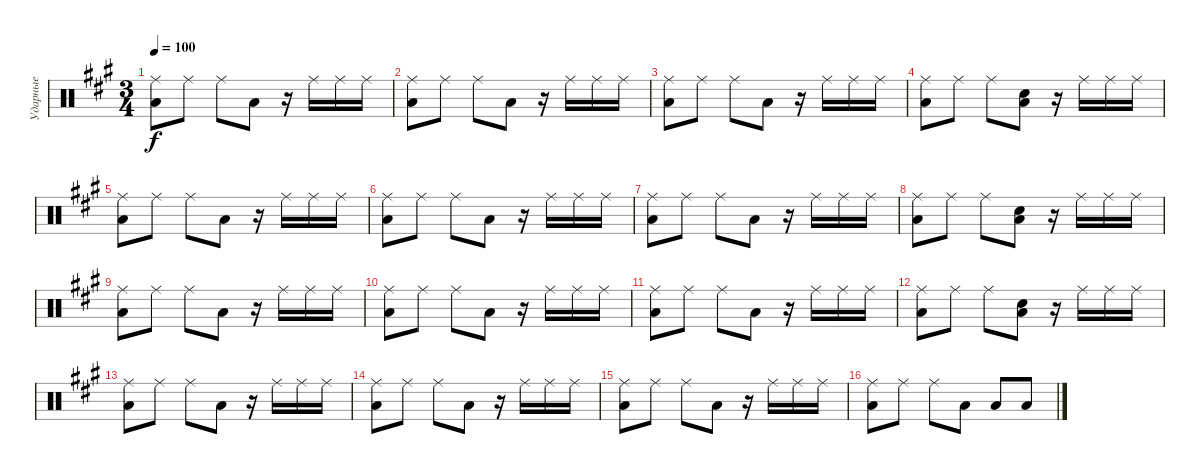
\track ("Ударные" "Ударные") {instrument percussion}
\staff {score}
\articulation defaults
\ts (3 4)
\tempo 100
\clef neutral
\ks f#minor
("Low Tom (hit)" "Ride (middle)").8{dy f} "Ride (middle)".8 "Ride (middle)".8 "Low Tom (hit)".8 r.16 "Ride (middle)".16 "Ride (middle)".16 "Ride (middle)".16 |
("Low Tom (hit)" "Ride (middle)").8 "Ride (middle)".8 "Ride (middle)".8 "Low Tom (hit)".8 r.16 "Ride (middle)".16 "Ride (middle)".16 "Ride (middle)".16 |
("Low Tom (hit)" "Ride (middle)").8 "Ride (middle)".8 "Ride (middle)".8 "Low Tom (hit)".8 r.16 "Ride (middle)".16 "Ride (middle)".16 "Ride (middle)".16 |
("Low Tom (hit)" "Ride (middle)").8 "Ride (middle)".8 "Ride (middle)".8 ("Low Tom (hit)" "Snare (hit) 2").8 r.16 "Ride (middle)".16 "Ride (middle)".16 "Ride (middle)".16 |
("Low Tom (hit)" "Ride (middle)").8 "Ride (middle)".8 "Ride (middle)".8 "Low Tom (hit)".8 r.16 "Ride (middle)".16 "Ride (middle)".16 "Ride (middle)".16 |
("Low Tom (hit)" "Ride (middle)").8 "Ride (middle)".8 "Ride (middle)".8 "Low Tom (hit)".8 r.16 "Ride (middle)".16 "Ride (middle)".16 "Ride (middle)".16 |
("Low Tom (hit)" "Ride (middle)").8 "Ride (middle)".8 "Ride (middle)".8 "Low Tom (hit)".8 r.16 "Ride (middle)".16 "Ride (middle)".16 "Ride (middle)".16 |
("Low Tom (hit)" "Ride (middle)").8 "Ride (middle)".8 "Ride (middle)".8 ("Low Tom (hit)" "Snare (hit) 2").8 r.16 "Ride (middle)".16 "Ride (middle)".16 "Ride (middle)".16 |
("Low Tom (hit)" "Ride (middle)").8 "Ride (middle)".8 "Ride (middle)".8 "Low Tom (hit)".8 r.16 "Ride (middle)".16 "Ride (middle)".16 "Ride (middle)".16 |
("Low Tom (hit)" "Ride (middle)").8 "Ride (middle)".8 "Ride (middle)".8 "Low Tom (hit)".8 r.16 "Ride (middle)".16 "Ride (middle)".16 "Ride (middle)".16 |
("Low Tom (hit)" "Ride (middle)").8 "Ride (middle)".8 "Ride (middle)".8 "Low Tom (hit)".8 r.16 "Ride (middle)".16 "Ride (middle)".16 "Ride (middle)".16 |
("Low Tom (hit)" "Ride (middle)").8 "Ride (middle)".8 "Ride (middle)".8 ("Low Tom (hit)" "Snare (hit) 2").8 r.16 "Ride (middle)".16 "Ride (middle)".16 "Ride (middle)".16 |
("Low Tom (hit)" "Ride (middle)").8 "Ride (middle)".8 "Ride (middle)".8 "Low Tom (hit)".8 r.16 "Ride (middle)".16 "Ride (middle)".16 "Ride (middle)".16 |
("Low Tom (hit)" "Ride (middle)").8 "Ride (middle)".8 "Ride (middle)".8 "Low Tom (hit)".8 r.16 "Ride (middle)".16 "Ride (middle)".16 "Ride (middle)".16 |
("Low Tom (hit)" "Ride (middle)").8 "Ride (middle)".8 "Ride (middle)".8 "Low Tom (hit)".8 r.16 "Ride (middle)".16 "Ride (middle)".16 "Ride (middle)".16 |
("Low Tom (hit)" "Ride (middle)").8 "Ride (middle)".8 "Ride (middle)".8 "Low Tom (hit)".8 "Low Floor Tom (hit)".8 "Low Floor Tom (hit)".8
